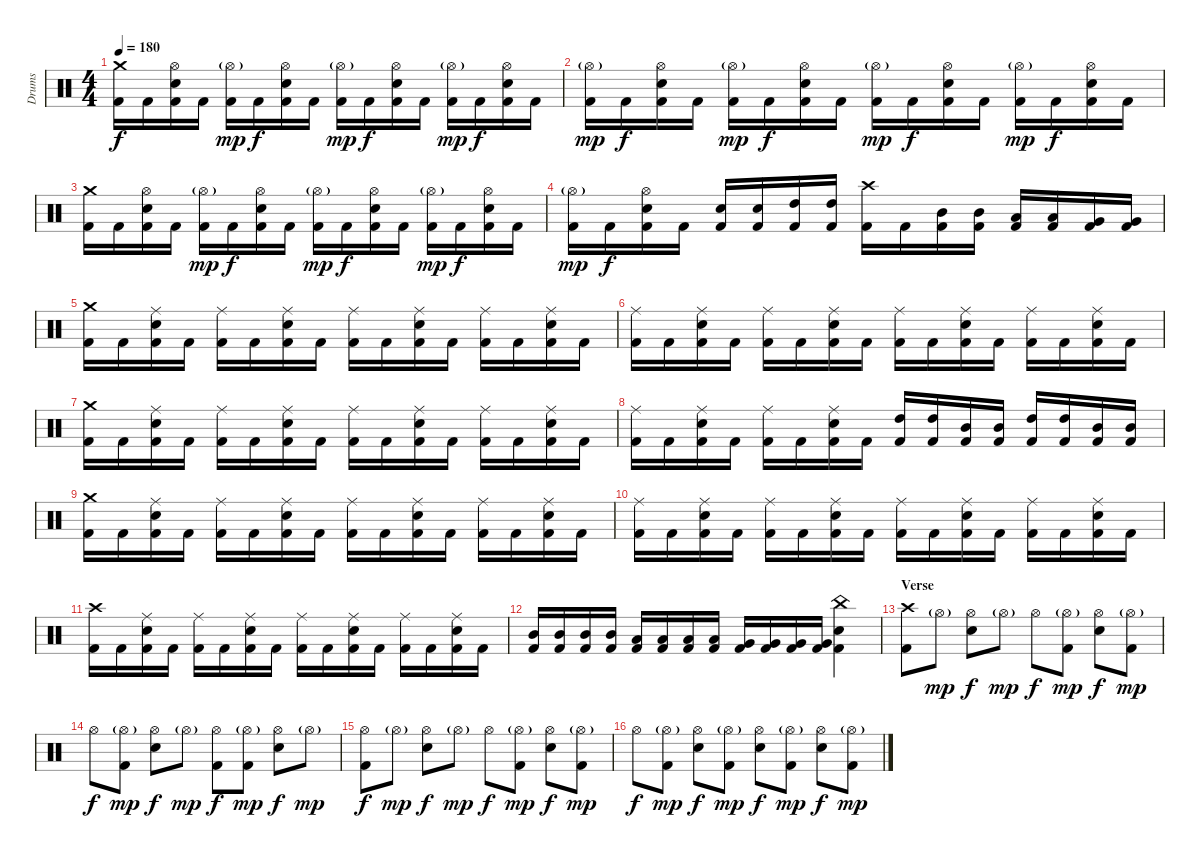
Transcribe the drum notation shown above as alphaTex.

\track ("Drums" "Drums") {instrument percussion}
\staff {score}
\articulation defaults
\ts (4 4)
\tempo 180
\clef neutral
\ks c
("Crash medium (hit)" "Kick (hit) 2").16{dy f} "Kick (hit) 2".16 ("Hi-Hat (open)" "Snare (hit) 2" "Kick (hit) 2").16 "Kick (hit) 2".16 ("Hi-Hat (open)"{g} "Kick (hit) 2").16{dy mp} "Kick (hit) 2".16{dy f} ("Hi-Hat (open)" "Snare (hit) 2" "Kick (hit) 2").16 "Kick (hit) 2".16 ("Hi-Hat (open)"{g} "Kick (hit) 2").16{dy mp} "Kick (hit) 2".16{dy f} ("Hi-Hat (open)" "Snare (hit) 2" "Kick (hit) 2").16 "Kick (hit) 2".16 ("Hi-Hat (open)"{g} "Kick (hit) 2").16{dy mp} "Kick (hit) 2".16{dy f} ("Hi-Hat (open)" "Snare (hit) 2" "Kick (hit) 2").16 "Kick (hit) 2".16 |
("Hi-Hat (open)"{g} "Kick (hit) 2").16{dy mp} "Kick (hit) 2".16{dy f} ("Hi-Hat (open)" "Snare (hit) 2" "Kick (hit) 2").16 "Kick (hit) 2".16 ("Hi-Hat (open)"{g} "Kick (hit) 2").16{dy mp} "Kick (hit) 2".16{dy f} ("Hi-Hat (open)" "Snare (hit) 2" "Kick (hit) 2").16 "Kick (hit) 2".16 ("Hi-Hat (open)"{g} "Kick (hit) 2").16{dy mp} "Kick (hit) 2".16{dy f} ("Hi-Hat (open)" "Snare (hit) 2" "Kick (hit) 2").16 "Kick (hit) 2".16 ("Hi-Hat (open)"{g} "Kick (hit) 2").16{dy mp} "Kick (hit) 2".16{dy f} ("Hi-Hat (open)" "Snare (hit) 2" "Kick (hit) 2").16 "Kick (hit) 2".16 |
("Crash medium (hit)" "Kick (hit) 2").16 "Kick (hit) 2".16 ("Hi-Hat (open)" "Snare (hit) 2" "Kick (hit) 2").16 "Kick (hit) 2".16 ("Hi-Hat (open)"{g} "Kick (hit) 2").16{dy mp} "Kick (hit) 2".16{dy f} ("Hi-Hat (open)" "Snare (hit) 2" "Kick (hit) 2").16 "Kick (hit) 2".16 ("Hi-Hat (open)"{g} "Kick (hit) 2").16{dy mp} "Kick (hit) 2".16{dy f} ("Hi-Hat (open)" "Snare (hit) 2" "Kick (hit) 2").16 "Kick (hit) 2".16 ("Hi-Hat (open)"{g} "Kick (hit) 2").16{dy mp} "Kick (hit) 2".16{dy f} ("Hi-Hat (open)" "Snare (hit) 2" "Kick (hit) 2").16 "Kick (hit) 2".16 |
("Hi-Hat (open)"{g} "Kick (hit) 2").16{dy mp} "Kick (hit) 2".16{dy f} ("Hi-Hat (open)" "Snare (hit) 2" "Kick (hit) 2").16 "Kick (hit) 2".16 ("Snare (hit) 2" "Kick (hit) 2").16 ("Snare (hit) 2" "Kick (hit) 2").16 ("High Tom (hit)" "Kick (hit) 2").16 ("High Tom (hit)" "Kick (hit) 2").16 ("Crash high (hit)" "Kick (hit) 2").16 "Kick (hit) 2".16 ("Mid Tom (hit)" "Kick (hit) 2").16 ("Mid Tom (hit)" "Kick (hit) 2").16 ("Low Tom (hit)" "Kick (hit) 2").16 ("Low Tom (hit)" "Kick (hit) 2").16 ("Very Low Tom (hit)" "Kick (hit) 2").16 ("Very Low Tom (hit)" "Kick (hit) 2").16 |
("Crash medium (hit)" "Kick (hit) 2").16 "Kick (hit) 2".16 ("Ride (middle)" "Snare (hit) 2" "Kick (hit) 2").16 "Kick (hit) 2".16 ("Ride (middle)" "Kick (hit) 2").16 "Kick (hit) 2".16 ("Ride (middle)" "Snare (hit) 2" "Kick (hit) 2").16 "Kick (hit) 2".16 ("Ride (middle)" "Kick (hit) 2").16 "Kick (hit) 2".16 ("Ride (middle)" "Snare (hit) 2" "Kick (hit) 2").16 "Kick (hit) 2".16 ("Ride (middle)" "Kick (hit) 2").16 "Kick (hit) 2".16 ("Ride (middle)" "Snare (hit) 2" "Kick (hit) 2").16 "Kick (hit) 2".16 |
("Ride (middle)" "Kick (hit) 2").16 "Kick (hit) 2".16 ("Ride (middle)" "Snare (hit) 2" "Kick (hit) 2").16 "Kick (hit) 2".16 ("Ride (middle)" "Kick (hit) 2").16 "Kick (hit) 2".16 ("Ride (middle)" "Snare (hit) 2" "Kick (hit) 2").16 "Kick (hit) 2".16 ("Ride (middle)" "Kick (hit) 2").16 "Kick (hit) 2".16 ("Ride (middle)" "Snare (hit) 2" "Kick (hit) 2").16 "Kick (hit) 2".16 ("Ride (middle)" "Kick (hit) 2").16 "Kick (hit) 2".16 ("Ride (middle)" "Snare (hit) 2" "Kick (hit) 2").16 "Kick (hit) 2".16 |
("Crash medium (hit)" "Kick (hit) 2").16 "Kick (hit) 2".16 ("Ride (middle)" "Snare (hit) 2" "Kick (hit) 2").16 "Kick (hit) 2".16 ("Ride (middle)" "Kick (hit) 2").16 "Kick (hit) 2".16 ("Ride (middle)" "Snare (hit) 2" "Kick (hit) 2").16 "Kick (hit) 2".16 ("Ride (middle)" "Kick (hit) 2").16 "Kick (hit) 2".16 ("Ride (middle)" "Snare (hit) 2" "Kick (hit) 2").16 "Kick (hit) 2".16 ("Ride (middle)" "Kick (hit) 2").16 "Kick (hit) 2".16 ("Ride (middle)" "Snare (hit) 2" "Kick (hit) 2").16 "Kick (hit) 2".16 |
("Ride (middle)" "Kick (hit) 2").16 "Kick (hit) 2".16 ("Ride (middle)" "Snare (hit) 2" "Kick (hit) 2").16 "Kick (hit) 2".16 ("Ride (middle)" "Kick (hit) 2").16 "Kick (hit) 2".16 ("Ride (middle)" "Snare (hit) 2" "Kick (hit) 2").16 "Kick (hit) 2".16 ("High Tom (hit)" "Kick (hit) 2").16 ("High Tom (hit)" "Kick (hit) 2").16 ("Mid Tom (hit)" "Kick (hit) 2").16 ("Mid Tom (hit)" "Kick (hit) 2").16 ("High Tom (hit)" "Kick (hit) 2").16 ("High Tom (hit)" "Kick (hit) 2").16 ("Mid Tom (hit)" "Kick (hit) 2").16 ("Mid Tom (hit)" "Kick (hit) 2").16 |
("Crash medium (hit)" "Kick (hit) 2").16 "Kick (hit) 2".16 ("Ride (middle)" "Snare (hit) 2" "Kick (hit) 2").16 "Kick (hit) 2".16 ("Ride (middle)" "Kick (hit) 2").16 "Kick (hit) 2".16 ("Ride (middle)" "Snare (hit) 2" "Kick (hit) 2").16 "Kick (hit) 2".16 ("Ride (middle)" "Kick (hit) 2").16 "Kick (hit) 2".16 ("Ride (middle)" "Snare (hit) 2" "Kick (hit) 2").16 "Kick (hit) 2".16 ("Ride (middle)" "Kick (hit) 2").16 "Kick (hit) 2".16 ("Ride (middle)" "Snare (hit) 2" "Kick (hit) 2").16 "Kick (hit) 2".16 |
("Ride (middle)" "Kick (hit) 2").16 "Kick (hit) 2".16 ("Ride (middle)" "Snare (hit) 2" "Kick (hit) 2").16 "Kick (hit) 2".16 ("Ride (middle)" "Kick (hit) 2").16 "Kick (hit) 2".16 ("Ride (middle)" "Snare (hit) 2" "Kick (hit) 2").16 "Kick (hit) 2".16 ("Ride (middle)" "Kick (hit) 2").16 "Kick (hit) 2".16 ("Ride (middle)" "Snare (hit) 2" "Kick (hit) 2").16 "Kick (hit) 2".16 ("Ride (middle)" "Kick (hit) 2").16 "Kick (hit) 2".16 ("Ride (middle)" "Snare (hit) 2" "Kick (hit) 2").16 "Kick (hit) 2".16 |
("Crash high (hit)" "Kick (hit) 2").16 "Kick (hit) 2".16 ("Ride (middle)" "Snare (hit) 2" "Kick (hit) 2").16 "Kick (hit) 2".16 ("Ride (middle)" "Kick (hit) 2").16 "Kick (hit) 2".16 ("Ride (middle)" "Snare (hit) 2" "Kick (hit) 2").16 "Kick (hit) 2".16 ("Ride (middle)" "Kick (hit) 2").16 "Kick (hit) 2".16 ("Ride (middle)" "Snare (hit) 2" "Kick (hit) 2").16 "Kick (hit) 2".16 ("Ride (middle)" "Kick (hit) 2").16 "Kick (hit) 2".16 ("Ride (middle)" "Snare (hit) 2" "Kick (hit) 2").16 "Kick (hit) 2".16 |
("Mid Tom (hit)" "Kick (hit) 2").16 ("Mid Tom (hit)" "Kick (hit) 2").16 ("Mid Tom (hit)" "Kick (hit) 2").16 ("Mid Tom (hit)" "Kick (hit) 2").16 ("Low Tom (hit)" "Kick (hit) 2").16 ("Low Tom (hit)" "Kick (hit) 2").16 ("Low Tom (hit)" "Kick (hit) 2").16 ("Low Tom (hit)" "Kick (hit) 2").16 ("Very Low Tom (hit)" "Kick (hit) 2").16 ("Very Low Tom (hit)" "Kick (hit) 2").16 ("Very Low Tom (hit)" "Kick (hit) 2").16 ("Very Low Tom (hit)" "Kick (hit) 2").16 ("China (hit)" "Snare (hit) 2" "Kick (hit) 2").4 |
\section ("" "Verse")
("Crash high (hit)" "Kick (hit) 2").8 "Hi-Hat (open)"{g}.8{dy mp} ("Hi-Hat (open)" "Snare (hit) 2").8{dy f} "Hi-Hat (open)"{g}.8{dy mp} "Hi-Hat (open)".8{dy f} ("Hi-Hat (open)"{g} "Kick (hit) 2").8{dy mp} ("Hi-Hat (open)" "Snare (hit) 2").8{dy f} ("Hi-Hat (open)"{g} "Kick (hit) 2").8{dy mp} |
"Hi-Hat (open)".8{dy f} ("Hi-Hat (open)"{g} "Kick (hit) 2").8{dy mp} ("Hi-Hat (open)" "Snare (hit) 2").8{dy f} "Hi-Hat (open)"{g}.8{dy mp} ("Hi-Hat (open)" "Kick (hit) 2").8{dy f} ("Hi-Hat (open)"{g} "Kick (hit) 2").8{dy mp} ("Hi-Hat (open)" "Snare (hit) 2").8{dy f} "Hi-Hat (open)"{g}.8{dy mp} |
("Hi-Hat (open)" "Kick (hit) 2").8{dy f} "Hi-Hat (open)"{g}.8{dy mp} ("Hi-Hat (open)" "Snare (hit) 2").8{dy f} "Hi-Hat (open)"{g}.8{dy mp} "Hi-Hat (open)".8{dy f} ("Hi-Hat (open)"{g} "Kick (hit) 2").8{dy mp} ("Hi-Hat (open)" "Snare (hit) 2").8{dy f} ("Hi-Hat (open)"{g} "Kick (hit) 2").8{dy mp} |
"Hi-Hat (open)".8{dy f} ("Hi-Hat (open)"{g} "Kick (hit) 2").8{dy mp} ("Hi-Hat (open)" "Snare (hit) 2").8{dy f} ("Hi-Hat (open)"{g} "Kick (hit) 2").8{dy mp} ("Hi-Hat (open)" "Snare (hit) 2").8{dy f} ("Hi-Hat (open)"{g} "Kick (hit) 2").8{dy mp} ("Hi-Hat (open)" "Snare (hit) 2").8{dy f} ("Hi-Hat (open)"{g} "Kick (hit) 2").8{dy mp}
